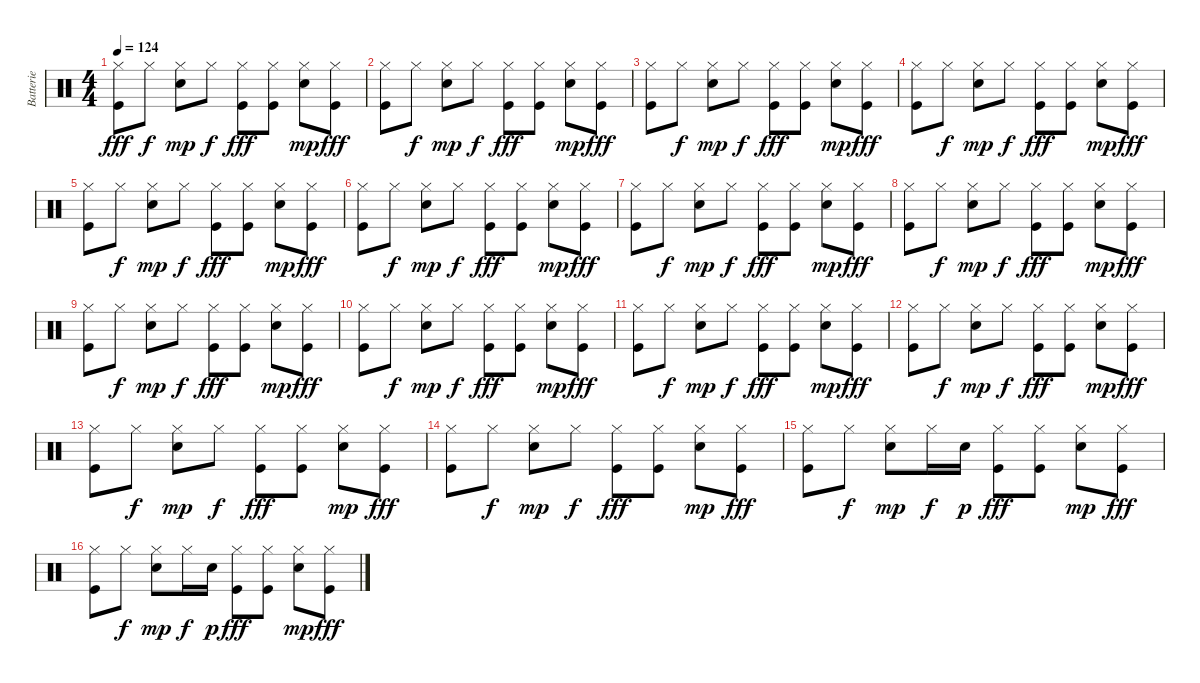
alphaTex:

\track ("Batterie" "Batterie") {instrument percussion}
\staff {score}
\articulation defaults
\ts (4 4)
\tempo 124
\clef neutral
\ks c
("Hi-Hat (closed)" "Kick (hit)").8{dy fff} "Hi-Hat (closed)".8{dy f} ("Hi-Hat (closed)" "Electric Snare (hit)").8{dy mp} "Hi-Hat (closed)".8{dy f} ("Hi-Hat (closed)" "Kick (hit)").8{dy fff} ("Hi-Hat (closed)" "Kick (hit)").8 ("Hi-Hat (closed)" "Electric Snare (hit)").8{dy mp} ("Hi-Hat (closed)" "Kick (hit)").8{dy fff} |
("Hi-Hat (closed)" "Kick (hit)").8 "Hi-Hat (closed)".8{dy f} ("Hi-Hat (closed)" "Electric Snare (hit)").8{dy mp} "Hi-Hat (closed)".8{dy f} ("Hi-Hat (closed)" "Kick (hit)").8{dy fff} ("Hi-Hat (closed)" "Kick (hit)").8 ("Hi-Hat (closed)" "Electric Snare (hit)").8{dy mp} ("Hi-Hat (closed)" "Kick (hit)").8{dy fff} |
("Hi-Hat (closed)" "Kick (hit)").8 "Hi-Hat (closed)".8{dy f} ("Hi-Hat (closed)" "Electric Snare (hit)").8{dy mp} "Hi-Hat (closed)".8{dy f} ("Hi-Hat (closed)" "Kick (hit)").8{dy fff} ("Hi-Hat (closed)" "Kick (hit)").8 ("Hi-Hat (closed)" "Electric Snare (hit)").8{dy mp} ("Hi-Hat (closed)" "Kick (hit)").8{dy fff} |
("Hi-Hat (closed)" "Kick (hit)").8 "Hi-Hat (closed)".8{dy f} ("Hi-Hat (closed)" "Electric Snare (hit)").8{dy mp} "Hi-Hat (closed)".8{dy f} ("Hi-Hat (closed)" "Kick (hit)").8{dy fff} ("Hi-Hat (closed)" "Kick (hit)").8 ("Hi-Hat (closed)" "Electric Snare (hit)").8{dy mp} ("Hi-Hat (closed)" "Kick (hit)").8{dy fff} |
("Hi-Hat (closed)" "Kick (hit)").8 "Hi-Hat (closed)".8{dy f} ("Hi-Hat (closed)" "Electric Snare (hit)").8{dy mp} "Hi-Hat (closed)".8{dy f} ("Hi-Hat (closed)" "Kick (hit)").8{dy fff} ("Hi-Hat (closed)" "Kick (hit)").8 ("Hi-Hat (closed)" "Electric Snare (hit)").8{dy mp} ("Hi-Hat (closed)" "Kick (hit)").8{dy fff} |
("Hi-Hat (closed)" "Kick (hit)").8 "Hi-Hat (closed)".8{dy f} ("Hi-Hat (closed)" "Electric Snare (hit)").8{dy mp} "Hi-Hat (closed)".8{dy f} ("Hi-Hat (closed)" "Kick (hit)").8{dy fff} ("Hi-Hat (closed)" "Kick (hit)").8 ("Hi-Hat (closed)" "Electric Snare (hit)").8{dy mp} ("Hi-Hat (closed)" "Kick (hit)").8{dy fff} |
("Hi-Hat (closed)" "Kick (hit)").8 "Hi-Hat (closed)".8{dy f} ("Hi-Hat (closed)" "Electric Snare (hit)").8{dy mp} "Hi-Hat (closed)".8{dy f} ("Hi-Hat (closed)" "Kick (hit)").8{dy fff} ("Hi-Hat (closed)" "Kick (hit)").8 ("Hi-Hat (closed)" "Electric Snare (hit)").8{dy mp} ("Hi-Hat (closed)" "Kick (hit)").8{dy fff} |
("Hi-Hat (closed)" "Kick (hit)").8 "Hi-Hat (closed)".8{dy f} ("Hi-Hat (closed)" "Electric Snare (hit)").8{dy mp} "Hi-Hat (closed)".8{dy f} ("Hi-Hat (closed)" "Kick (hit)").8{dy fff} ("Hi-Hat (closed)" "Kick (hit)").8 ("Hi-Hat (closed)" "Electric Snare (hit)").8{dy mp} ("Hi-Hat (closed)" "Kick (hit)").8{dy fff} |
("Hi-Hat (closed)" "Kick (hit)").8 "Hi-Hat (closed)".8{dy f} ("Hi-Hat (closed)" "Electric Snare (hit)").8{dy mp} "Hi-Hat (closed)".8{dy f} ("Hi-Hat (closed)" "Kick (hit)").8{dy fff} ("Hi-Hat (closed)" "Kick (hit)").8 ("Hi-Hat (closed)" "Electric Snare (hit)").8{dy mp} ("Hi-Hat (closed)" "Kick (hit)").8{dy fff} |
("Hi-Hat (closed)" "Kick (hit)").8 "Hi-Hat (closed)".8{dy f} ("Hi-Hat (closed)" "Electric Snare (hit)").8{dy mp} "Hi-Hat (closed)".8{dy f} ("Hi-Hat (closed)" "Kick (hit)").8{dy fff} ("Hi-Hat (closed)" "Kick (hit)").8 ("Hi-Hat (closed)" "Electric Snare (hit)").8{dy mp} ("Hi-Hat (closed)" "Kick (hit)").8{dy fff} |
("Hi-Hat (closed)" "Kick (hit)").8 "Hi-Hat (closed)".8{dy f} ("Hi-Hat (closed)" "Electric Snare (hit)").8{dy mp} "Hi-Hat (closed)".8{dy f} ("Hi-Hat (closed)" "Kick (hit)").8{dy fff} ("Hi-Hat (closed)" "Kick (hit)").8 ("Hi-Hat (closed)" "Electric Snare (hit)").8{dy mp} ("Hi-Hat (closed)" "Kick (hit)").8{dy fff} |
("Hi-Hat (closed)" "Kick (hit)").8 "Hi-Hat (closed)".8{dy f} ("Hi-Hat (closed)" "Electric Snare (hit)").8{dy mp} "Hi-Hat (closed)".8{dy f} ("Hi-Hat (closed)" "Kick (hit)").8{dy fff} ("Hi-Hat (closed)" "Kick (hit)").8 ("Hi-Hat (closed)" "Electric Snare (hit)").8{dy mp} ("Hi-Hat (closed)" "Kick (hit)").8{dy fff} |
("Hi-Hat (closed)" "Kick (hit)").8 "Hi-Hat (closed)".8{dy f} ("Hi-Hat (closed)" "Electric Snare (hit)").8{dy mp} "Hi-Hat (closed)".8{dy f} ("Hi-Hat (closed)" "Kick (hit)").8{dy fff} ("Hi-Hat (closed)" "Kick (hit)").8 ("Hi-Hat (closed)" "Electric Snare (hit)").8{dy mp} ("Hi-Hat (closed)" "Kick (hit)").8{dy fff} |
("Hi-Hat (closed)" "Kick (hit)").8 "Hi-Hat (closed)".8{dy f} ("Hi-Hat (closed)" "Electric Snare (hit)").8{dy mp} "Hi-Hat (closed)".8{dy f} ("Hi-Hat (closed)" "Kick (hit)").8{dy fff} ("Hi-Hat (closed)" "Kick (hit)").8 ("Hi-Hat (closed)" "Electric Snare (hit)").8{dy mp} ("Hi-Hat (closed)" "Kick (hit)").8{dy fff} |
("Hi-Hat (closed)" "Kick (hit)").8 "Hi-Hat (closed)".8{dy f} ("Hi-Hat (closed)" "Electric Snare (hit)").8{dy mp} "Hi-Hat (closed)".16{dy f} "Electric Snare (hit)".16{dy p} ("Hi-Hat (closed)" "Kick (hit)").8{dy fff} ("Hi-Hat (closed)" "Kick (hit)").8 ("Hi-Hat (closed)" "Electric Snare (hit)").8{dy mp} ("Hi-Hat (closed)" "Kick (hit)").8{dy fff} |
("Hi-Hat (closed)" "Kick (hit)").8 "Hi-Hat (closed)".8{dy f} ("Hi-Hat (closed)" "Electric Snare (hit)").8{dy mp} "Hi-Hat (closed)".16{dy f} "Electric Snare (hit)".16{dy p} ("Hi-Hat (closed)" "Kick (hit)").8{dy fff} ("Hi-Hat (closed)" "Kick (hit)").8 ("Hi-Hat (closed)" "Electric Snare (hit)").8{dy mp} ("Hi-Hat (closed)" "Kick (hit)").8{dy fff}
